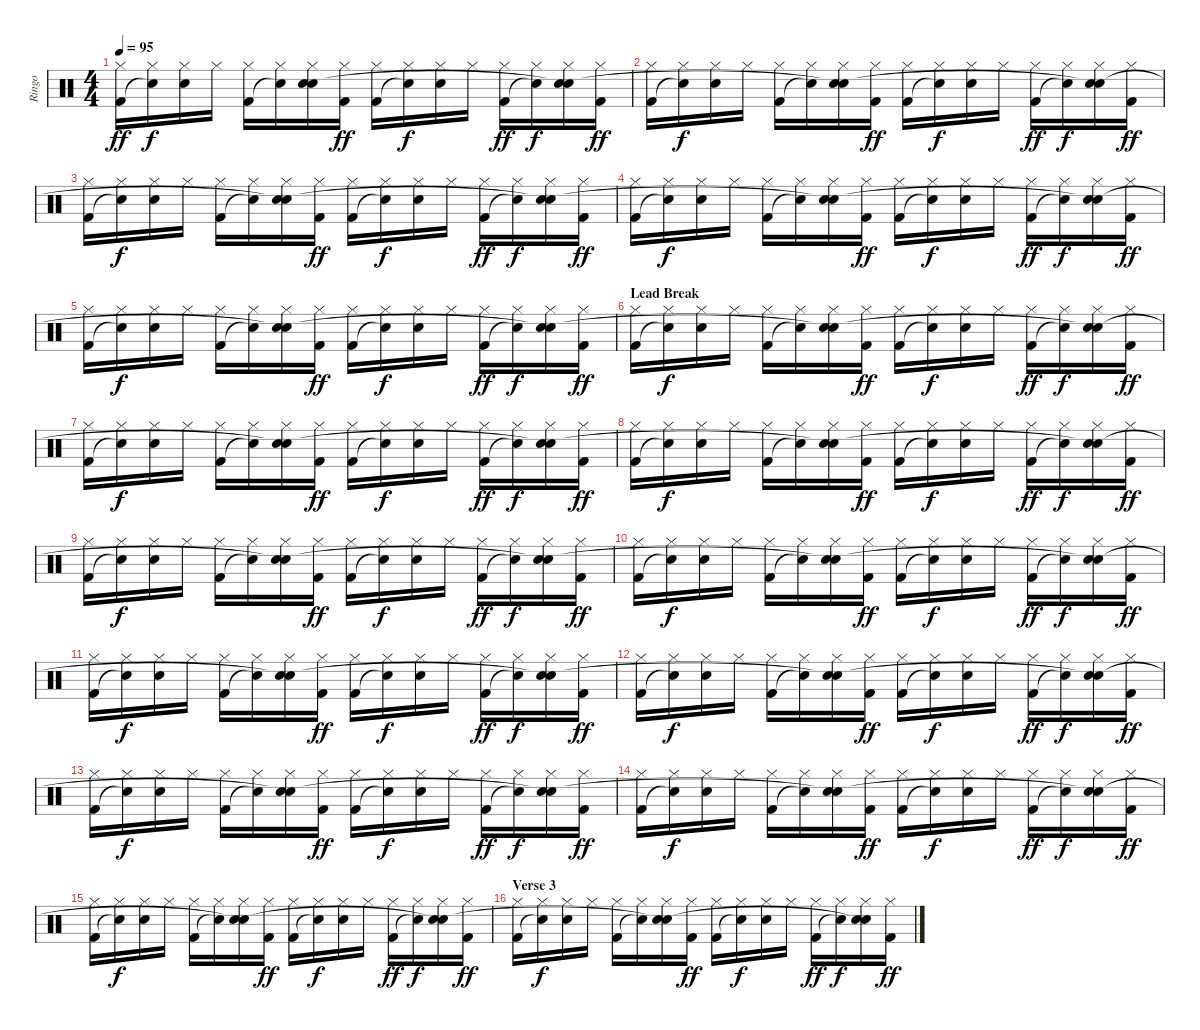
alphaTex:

\track ("Ringo" "Ringo") {instrument percussion}
\staff {score}
\articulation defaults
\ts (4 4)
\tempo 95
\clef neutral
\ks c
("Hi-Hat (closed)" "Kick (hit) 2").16{dy ff} ("Hi-Hat (closed)" "Snare (hit)"{t}).16{dy f} ("Hi-Hat (closed)" "Snare (hit) 2").16 "Hi-Hat (closed)".16 ("Hi-Hat (closed)" "Kick (hit) 2").16 ("Hi-Hat (closed)" "Snare (hit)"{t}).16 ("Hi-Hat (closed)" "Snare (hit) 2" "Snare (hit)"{t}).16 ("Hi-Hat (closed)" "Kick (hit) 2").16{dy ff} ("Hi-Hat (closed)" "Kick (hit) 2").16 ("Hi-Hat (closed)" "Snare (hit)"{t}).16{dy f} ("Hi-Hat (closed)" "Snare (hit) 2").16 "Hi-Hat (closed)".16 ("Hi-Hat (closed)" "Kick (hit) 2").16{dy ff} ("Hi-Hat (closed)" "Snare (hit)"{t}).16{dy f} ("Hi-Hat (closed)" "Snare (hit) 2" "Snare (hit)"{t}).16 ("Hi-Hat (closed)" "Kick (hit) 2").16{dy ff} |
("Hi-Hat (closed)" "Kick (hit) 2").16 ("Hi-Hat (closed)" "Snare (hit)"{t}).16{dy f} ("Hi-Hat (closed)" "Snare (hit) 2").16 "Hi-Hat (closed)".16 ("Hi-Hat (closed)" "Kick (hit) 2").16 ("Hi-Hat (closed)" "Snare (hit)"{t}).16 ("Hi-Hat (closed)" "Snare (hit) 2" "Snare (hit)"{t}).16 ("Hi-Hat (closed)" "Kick (hit) 2").16{dy ff} ("Hi-Hat (closed)" "Kick (hit) 2").16 ("Hi-Hat (closed)" "Snare (hit)"{t}).16{dy f} ("Hi-Hat (closed)" "Snare (hit) 2").16 "Hi-Hat (closed)".16 ("Hi-Hat (closed)" "Kick (hit) 2").16{dy ff} ("Hi-Hat (closed)" "Snare (hit)"{t}).16{dy f} ("Hi-Hat (closed)" "Snare (hit) 2" "Snare (hit)"{t}).16 ("Hi-Hat (closed)" "Kick (hit) 2").16{dy ff} |
("Hi-Hat (closed)" "Kick (hit) 2").16 ("Hi-Hat (closed)" "Snare (hit)"{t}).16{dy f} ("Hi-Hat (closed)" "Snare (hit) 2").16 "Hi-Hat (closed)".16 ("Hi-Hat (closed)" "Kick (hit) 2").16 ("Hi-Hat (closed)" "Snare (hit)"{t}).16 ("Hi-Hat (closed)" "Snare (hit) 2" "Snare (hit)"{t}).16 ("Hi-Hat (closed)" "Kick (hit) 2").16{dy ff} ("Hi-Hat (closed)" "Kick (hit) 2").16 ("Hi-Hat (closed)" "Snare (hit)"{t}).16{dy f} ("Hi-Hat (closed)" "Snare (hit) 2").16 "Hi-Hat (closed)".16 ("Hi-Hat (closed)" "Kick (hit) 2").16{dy ff} ("Hi-Hat (closed)" "Snare (hit)"{t}).16{dy f} ("Hi-Hat (closed)" "Snare (hit) 2" "Snare (hit)"{t}).16 ("Hi-Hat (closed)" "Kick (hit) 2").16{dy ff} |
("Hi-Hat (closed)" "Kick (hit) 2").16 ("Hi-Hat (closed)" "Snare (hit)"{t}).16{dy f} ("Hi-Hat (closed)" "Snare (hit) 2").16 "Hi-Hat (closed)".16 ("Hi-Hat (closed)" "Kick (hit) 2").16 ("Hi-Hat (closed)" "Snare (hit)"{t}).16 ("Hi-Hat (closed)" "Snare (hit) 2" "Snare (hit)"{t}).16 ("Hi-Hat (closed)" "Kick (hit) 2").16{dy ff} ("Hi-Hat (closed)" "Kick (hit) 2").16 ("Hi-Hat (closed)" "Snare (hit)"{t}).16{dy f} ("Hi-Hat (closed)" "Snare (hit) 2").16 "Hi-Hat (closed)".16 ("Hi-Hat (closed)" "Kick (hit) 2").16{dy ff} ("Hi-Hat (closed)" "Snare (hit)"{t}).16{dy f} ("Hi-Hat (closed)" "Snare (hit) 2" "Snare (hit)"{t}).16 ("Hi-Hat (closed)" "Kick (hit) 2").16{dy ff} |
("Hi-Hat (closed)" "Kick (hit) 2").16 ("Hi-Hat (closed)" "Snare (hit)"{t}).16{dy f} ("Hi-Hat (closed)" "Snare (hit) 2").16 "Hi-Hat (closed)".16 ("Hi-Hat (closed)" "Kick (hit) 2").16 ("Hi-Hat (closed)" "Snare (hit)"{t}).16 ("Hi-Hat (closed)" "Snare (hit) 2" "Snare (hit)"{t}).16 ("Hi-Hat (closed)" "Kick (hit) 2").16{dy ff} ("Hi-Hat (closed)" "Kick (hit) 2").16 ("Hi-Hat (closed)" "Snare (hit)"{t}).16{dy f} ("Hi-Hat (closed)" "Snare (hit) 2").16 "Hi-Hat (closed)".16 ("Hi-Hat (closed)" "Kick (hit) 2").16{dy ff} ("Hi-Hat (closed)" "Snare (hit)"{t}).16{dy f} ("Hi-Hat (closed)" "Snare (hit) 2" "Snare (hit)"{t}).16 ("Hi-Hat (closed)" "Kick (hit) 2").16{dy ff} |
\section ("" "Lead Break")
("Hi-Hat (closed)" "Kick (hit) 2").16 ("Hi-Hat (closed)" "Snare (hit)"{t}).16{dy f} ("Hi-Hat (closed)" "Snare (hit) 2").16 "Hi-Hat (closed)".16 ("Hi-Hat (closed)" "Kick (hit) 2").16 ("Hi-Hat (closed)" "Snare (hit)"{t}).16 ("Hi-Hat (closed)" "Snare (hit) 2" "Snare (hit)"{t}).16 ("Hi-Hat (closed)" "Kick (hit) 2").16{dy ff} ("Hi-Hat (closed)" "Kick (hit) 2").16 ("Hi-Hat (closed)" "Snare (hit)"{t}).16{dy f} ("Hi-Hat (closed)" "Snare (hit) 2").16 "Hi-Hat (closed)".16 ("Hi-Hat (closed)" "Kick (hit) 2").16{dy ff} ("Hi-Hat (closed)" "Snare (hit)"{t}).16{dy f} ("Hi-Hat (closed)" "Snare (hit) 2" "Snare (hit)"{t}).16 ("Hi-Hat (closed)" "Kick (hit) 2").16{dy ff} |
("Hi-Hat (closed)" "Kick (hit) 2").16 ("Hi-Hat (closed)" "Snare (hit)"{t}).16{dy f} ("Hi-Hat (closed)" "Snare (hit) 2").16 "Hi-Hat (closed)".16 ("Hi-Hat (closed)" "Kick (hit) 2").16 ("Hi-Hat (closed)" "Snare (hit)"{t}).16 ("Hi-Hat (closed)" "Snare (hit) 2" "Snare (hit)"{t}).16 ("Hi-Hat (closed)" "Kick (hit) 2").16{dy ff} ("Hi-Hat (closed)" "Kick (hit) 2").16 ("Hi-Hat (closed)" "Snare (hit)"{t}).16{dy f} ("Hi-Hat (closed)" "Snare (hit) 2").16 "Hi-Hat (closed)".16 ("Hi-Hat (closed)" "Kick (hit) 2").16{dy ff} ("Hi-Hat (closed)" "Snare (hit)"{t}).16{dy f} ("Hi-Hat (closed)" "Snare (hit) 2" "Snare (hit)"{t}).16 ("Hi-Hat (closed)" "Kick (hit) 2").16{dy ff} |
("Hi-Hat (closed)" "Kick (hit) 2").16 ("Hi-Hat (closed)" "Snare (hit)"{t}).16{dy f} ("Hi-Hat (closed)" "Snare (hit) 2").16 "Hi-Hat (closed)".16 ("Hi-Hat (closed)" "Kick (hit) 2").16 ("Hi-Hat (closed)" "Snare (hit)"{t}).16 ("Hi-Hat (closed)" "Snare (hit) 2" "Snare (hit)"{t}).16 ("Hi-Hat (closed)" "Kick (hit) 2").16{dy ff} ("Hi-Hat (closed)" "Kick (hit) 2").16 ("Hi-Hat (closed)" "Snare (hit)"{t}).16{dy f} ("Hi-Hat (closed)" "Snare (hit) 2").16 "Hi-Hat (closed)".16 ("Hi-Hat (closed)" "Kick (hit) 2").16{dy ff} ("Hi-Hat (closed)" "Snare (hit)"{t}).16{dy f} ("Hi-Hat (closed)" "Snare (hit) 2" "Snare (hit)"{t}).16 ("Hi-Hat (closed)" "Kick (hit) 2").16{dy ff} |
("Hi-Hat (closed)" "Kick (hit) 2").16 ("Hi-Hat (closed)" "Snare (hit)"{t}).16{dy f} ("Hi-Hat (closed)" "Snare (hit) 2").16 "Hi-Hat (closed)".16 ("Hi-Hat (closed)" "Kick (hit) 2").16 ("Hi-Hat (closed)" "Snare (hit)"{t}).16 ("Hi-Hat (closed)" "Snare (hit) 2" "Snare (hit)"{t}).16 ("Hi-Hat (closed)" "Kick (hit) 2").16{dy ff} ("Hi-Hat (closed)" "Kick (hit) 2").16 ("Hi-Hat (closed)" "Snare (hit)"{t}).16{dy f} ("Hi-Hat (closed)" "Snare (hit) 2").16 "Hi-Hat (closed)".16 ("Hi-Hat (closed)" "Kick (hit) 2").16{dy ff} ("Hi-Hat (closed)" "Snare (hit)"{t}).16{dy f} ("Hi-Hat (closed)" "Snare (hit) 2" "Snare (hit)"{t}).16 ("Hi-Hat (closed)" "Kick (hit) 2").16{dy ff} |
("Hi-Hat (closed)" "Kick (hit) 2").16 ("Hi-Hat (closed)" "Snare (hit)"{t}).16{dy f} ("Hi-Hat (closed)" "Snare (hit) 2").16 "Hi-Hat (closed)".16 ("Hi-Hat (closed)" "Kick (hit) 2").16 ("Hi-Hat (closed)" "Snare (hit)"{t}).16 ("Hi-Hat (closed)" "Snare (hit) 2" "Snare (hit)"{t}).16 ("Hi-Hat (closed)" "Kick (hit) 2").16{dy ff} ("Hi-Hat (closed)" "Kick (hit) 2").16 ("Hi-Hat (closed)" "Snare (hit)"{t}).16{dy f} ("Hi-Hat (closed)" "Snare (hit) 2").16 "Hi-Hat (closed)".16 ("Hi-Hat (closed)" "Kick (hit) 2").16{dy ff} ("Hi-Hat (closed)" "Snare (hit)"{t}).16{dy f} ("Hi-Hat (closed)" "Snare (hit) 2" "Snare (hit)"{t}).16 ("Hi-Hat (closed)" "Kick (hit) 2").16{dy ff} |
("Hi-Hat (closed)" "Kick (hit) 2").16 ("Hi-Hat (closed)" "Snare (hit)"{t}).16{dy f} ("Hi-Hat (closed)" "Snare (hit) 2").16 "Hi-Hat (closed)".16 ("Hi-Hat (closed)" "Kick (hit) 2").16 ("Hi-Hat (closed)" "Snare (hit)"{t}).16 ("Hi-Hat (closed)" "Snare (hit) 2" "Snare (hit)"{t}).16 ("Hi-Hat (closed)" "Kick (hit) 2").16{dy ff} ("Hi-Hat (closed)" "Kick (hit) 2").16 ("Hi-Hat (closed)" "Snare (hit)"{t}).16{dy f} ("Hi-Hat (closed)" "Snare (hit) 2").16 "Hi-Hat (closed)".16 ("Hi-Hat (closed)" "Kick (hit) 2").16{dy ff} ("Hi-Hat (closed)" "Snare (hit)"{t}).16{dy f} ("Hi-Hat (closed)" "Snare (hit) 2" "Snare (hit)"{t}).16 ("Hi-Hat (closed)" "Kick (hit) 2").16{dy ff} |
("Hi-Hat (closed)" "Kick (hit) 2").16 ("Hi-Hat (closed)" "Snare (hit)"{t}).16{dy f} ("Hi-Hat (closed)" "Snare (hit) 2").16 "Hi-Hat (closed)".16 ("Hi-Hat (closed)" "Kick (hit) 2").16 ("Hi-Hat (closed)" "Snare (hit)"{t}).16 ("Hi-Hat (closed)" "Snare (hit) 2" "Snare (hit)"{t}).16 ("Hi-Hat (closed)" "Kick (hit) 2").16{dy ff} ("Hi-Hat (closed)" "Kick (hit) 2").16 ("Hi-Hat (closed)" "Snare (hit)"{t}).16{dy f} ("Hi-Hat (closed)" "Snare (hit) 2").16 "Hi-Hat (closed)".16 ("Hi-Hat (closed)" "Kick (hit) 2").16{dy ff} ("Hi-Hat (closed)" "Snare (hit)"{t}).16{dy f} ("Hi-Hat (closed)" "Snare (hit) 2" "Snare (hit)"{t}).16 ("Hi-Hat (closed)" "Kick (hit) 2").16{dy ff} |
("Hi-Hat (closed)" "Kick (hit) 2").16 ("Hi-Hat (closed)" "Snare (hit)"{t}).16{dy f} ("Hi-Hat (closed)" "Snare (hit) 2").16 "Hi-Hat (closed)".16 ("Hi-Hat (closed)" "Kick (hit) 2").16 ("Hi-Hat (closed)" "Snare (hit)"{t}).16 ("Hi-Hat (closed)" "Snare (hit) 2" "Snare (hit)"{t}).16 ("Hi-Hat (closed)" "Kick (hit) 2").16{dy ff} ("Hi-Hat (closed)" "Kick (hit) 2").16 ("Hi-Hat (closed)" "Snare (hit)"{t}).16{dy f} ("Hi-Hat (closed)" "Snare (hit) 2").16 "Hi-Hat (closed)".16 ("Hi-Hat (closed)" "Kick (hit) 2").16{dy ff} ("Hi-Hat (closed)" "Snare (hit)"{t}).16{dy f} ("Hi-Hat (closed)" "Snare (hit) 2" "Snare (hit)"{t}).16 ("Hi-Hat (closed)" "Kick (hit) 2").16{dy ff} |
("Hi-Hat (closed)" "Kick (hit) 2").16 ("Hi-Hat (closed)" "Snare (hit)"{t}).16{dy f} ("Hi-Hat (closed)" "Snare (hit) 2").16 "Hi-Hat (closed)".16 ("Hi-Hat (closed)" "Kick (hit) 2").16 ("Hi-Hat (closed)" "Snare (hit)"{t}).16 ("Hi-Hat (closed)" "Snare (hit) 2" "Snare (hit)"{t}).16 ("Hi-Hat (closed)" "Kick (hit) 2").16{dy ff} ("Hi-Hat (closed)" "Kick (hit) 2").16 ("Hi-Hat (closed)" "Snare (hit)"{t}).16{dy f} ("Hi-Hat (closed)" "Snare (hit) 2").16 "Hi-Hat (closed)".16 ("Hi-Hat (closed)" "Kick (hit) 2").16{dy ff} ("Hi-Hat (closed)" "Snare (hit)"{t}).16{dy f} ("Hi-Hat (closed)" "Snare (hit) 2" "Snare (hit)"{t}).16 ("Hi-Hat (closed)" "Kick (hit) 2").16{dy ff} |
("Hi-Hat (closed)" "Kick (hit) 2").16 ("Hi-Hat (closed)" "Snare (hit)"{t}).16{dy f} ("Hi-Hat (closed)" "Snare (hit) 2").16 "Hi-Hat (closed)".16 ("Hi-Hat (closed)" "Kick (hit) 2").16 ("Hi-Hat (closed)" "Snare (hit)"{t}).16 ("Hi-Hat (closed)" "Snare (hit) 2" "Snare (hit)"{t}).16 ("Hi-Hat (closed)" "Kick (hit) 2").16{dy ff} ("Hi-Hat (closed)" "Kick (hit) 2").16 ("Hi-Hat (closed)" "Snare (hit)"{t}).16{dy f} ("Hi-Hat (closed)" "Snare (hit) 2").16 "Hi-Hat (closed)".16 ("Hi-Hat (closed)" "Kick (hit) 2").16{dy ff} ("Hi-Hat (closed)" "Snare (hit)"{t}).16{dy f} ("Hi-Hat (closed)" "Snare (hit) 2" "Snare (hit)"{t}).16 ("Hi-Hat (closed)" "Kick (hit) 2").16{dy ff} |
\section ("" "Verse 3")
("Hi-Hat (closed)" "Kick (hit) 2").16 ("Hi-Hat (closed)" "Snare (hit)"{t}).16{dy f} ("Hi-Hat (closed)" "Snare (hit) 2").16 "Hi-Hat (closed)".16 ("Hi-Hat (closed)" "Kick (hit) 2").16 ("Hi-Hat (closed)" "Snare (hit)"{t}).16 ("Hi-Hat (closed)" "Snare (hit) 2" "Snare (hit)"{t}).16 ("Hi-Hat (closed)" "Kick (hit) 2").16{dy ff} ("Hi-Hat (closed)" "Kick (hit) 2").16 ("Hi-Hat (closed)" "Snare (hit)"{t}).16{dy f} ("Hi-Hat (closed)" "Snare (hit) 2").16 "Hi-Hat (closed)".16 ("Hi-Hat (closed)" "Kick (hit) 2").16{dy ff} ("Hi-Hat (closed)" "Snare (hit)"{t}).16{dy f} ("Hi-Hat (closed)" "Snare (hit) 2" "Snare (hit)"{t}).16 ("Hi-Hat (closed)" "Kick (hit) 2").16{dy ff}
